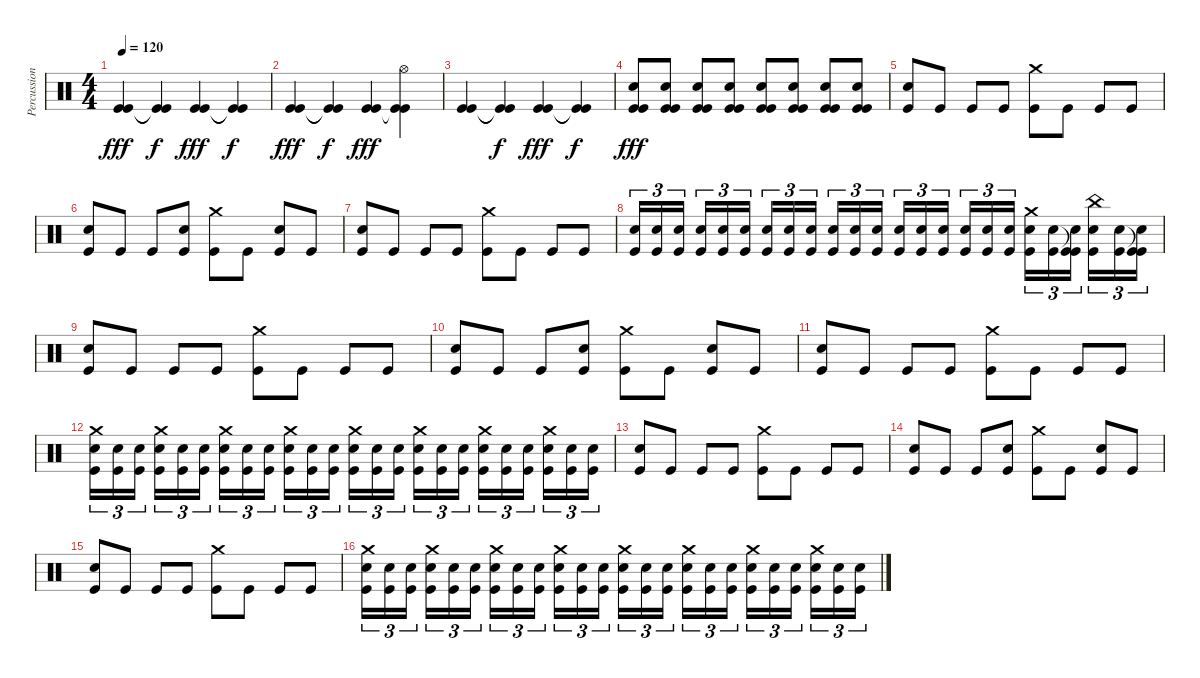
\track ("Percussions" "Percussion") {instrument percussion}
\staff {score}
\articulation defaults
\ts (4 4)
\tempo 120
\clef neutral
\ks c
("Kick (hit)" "Kick (hit)").4{dy fff} ("Kick (hit)"{t} "Kick (hit)"{t}).4{dy f} ("Kick (hit)" "Kick (hit)").4{dy fff} ("Kick (hit)"{t} "Kick (hit)"{t}).4{dy f} |
("Kick (hit)" "Kick (hit)").4{dy fff} ("Kick (hit)"{t} "Kick (hit)"{t}).4{dy f} ("Kick (hit)" "Kick (hit)").4{dy fff} ("Hi-Hat (open)" "Kick (hit)"{t} "Kick (hit)"{t}).4 |
("Kick (hit)" "Kick (hit)").4 ("Kick (hit)"{t} "Kick (hit)"{t}).4{dy f} ("Kick (hit)" "Kick (hit)").4{dy fff} ("Kick (hit)"{t} "Kick (hit)"{t}).4{dy f} |
("Snare (hit) 2" "Kick (hit)" "Kick (hit)").8{dy fff} ("Snare (hit) 2" "Kick (hit)" "Kick (hit)").8 ("Snare (hit) 2" "Kick (hit)" "Kick (hit)").8 ("Snare (hit) 2" "Kick (hit)" "Kick (hit)").8 ("Snare (hit) 2" "Kick (hit)" "Kick (hit)").8 ("Snare (hit) 2" "Kick (hit)" "Kick (hit)").8 ("Snare (hit) 2" "Kick (hit)" "Kick (hit)").8 ("Snare (hit) 2" "Kick (hit)" "Kick (hit)").8 |
("Snare (hit) 2" "Kick (hit)").8 "Kick (hit)".8 "Kick (hit)".8 "Kick (hit)".8 ("Crash medium (hit)" "Kick (hit)").8 "Kick (hit)".8 "Kick (hit)".8 "Kick (hit)".8 |
("Snare (hit) 2" "Kick (hit)").8 "Kick (hit)".8 "Kick (hit)".8 ("Snare (hit) 2" "Kick (hit)").8 ("Crash medium (hit)" "Kick (hit)").8 "Kick (hit)".8 ("Snare (hit) 2" "Kick (hit)").8 "Kick (hit)".8 |
("Snare (hit) 2" "Kick (hit)").8 "Kick (hit)".8 "Kick (hit)".8 "Kick (hit)".8 ("Crash medium (hit)" "Kick (hit)").8 "Kick (hit)".8 "Kick (hit)".8 "Kick (hit)".8 |
("Snare (hit) 2" "Kick (hit)").16{tu (3 2)} ("Snare (hit) 2" "Kick (hit)").16{tu (3 2)} ("Snare (hit) 2" "Kick (hit)").16{tu (3 2)} ("Snare (hit) 2" "Kick (hit)").16{tu (3 2)} ("Snare (hit) 2" "Kick (hit)").16{tu (3 2)} ("Snare (hit) 2" "Kick (hit)").16{tu (3 2)} ("Snare (hit) 2" "Kick (hit)").16{tu (3 2)} ("Snare (hit) 2" "Kick (hit)").16{tu (3 2)} ("Snare (hit) 2" "Kick (hit)").16{tu (3 2)} ("Snare (hit) 2" "Kick (hit)").16{tu (3 2)} ("Snare (hit) 2" "Kick (hit)").16{tu (3 2)} ("Snare (hit) 2" "Kick (hit)").16{tu (3 2)} ("Snare (hit) 2" "Kick (hit)").16{tu (3 2)} ("Snare (hit) 2" "Kick (hit)").16{tu (3 2)} ("Snare (hit) 2" "Kick (hit)").16{tu (3 2)} ("Snare (hit) 2" "Kick (hit)").16{tu (3 2)} ("Snare (hit) 2" "Kick (hit)").16{tu (3 2)} ("Snare (hit) 2" "Kick (hit)").16{tu (3 2)} ("Crash medium (hit)" "Snare (hit) 2" "Kick (hit)").16{tu (3 2)} ("Snare (hit) 2" "Kick (hit)").16{tu (3 2)} ("Kick (hit)"{t} "Snare (hit) 2" "Kick (hit)").16{tu (3 2)} ("China (hit)" "Snare (hit) 2" "Kick (hit)").16{tu (3 2)} ("Snare (hit) 2" "Kick (hit)").16{tu (3 2)} ("Kick (hit)"{t} "Snare (hit) 2" "Kick (hit)").16{tu (3 2)} |
("Snare (hit) 2" "Kick (hit)").8 "Kick (hit)".8 "Kick (hit)".8 "Kick (hit)".8 ("Crash medium (hit)" "Kick (hit)").8 "Kick (hit)".8 "Kick (hit)".8 "Kick (hit)".8 |
("Snare (hit) 2" "Kick (hit)").8 "Kick (hit)".8 "Kick (hit)".8 ("Snare (hit) 2" "Kick (hit)").8 ("Crash medium (hit)" "Kick (hit)").8 "Kick (hit)".8 ("Snare (hit) 2" "Kick (hit)").8 "Kick (hit)".8 |
("Snare (hit) 2" "Kick (hit)").8 "Kick (hit)".8 "Kick (hit)".8 "Kick (hit)".8 ("Crash medium (hit)" "Kick (hit)").8 "Kick (hit)".8 "Kick (hit)".8 "Kick (hit)".8 |
("Crash medium (hit)" "Snare (hit) 2" "Kick (hit)").16{tu (3 2)} ("Snare (hit) 2" "Kick (hit)").16{tu (3 2)} ("Snare (hit) 2" "Kick (hit)").16{tu (3 2)} ("Crash medium (hit)" "Snare (hit) 2" "Kick (hit)").16{tu (3 2)} ("Snare (hit) 2" "Kick (hit)").16{tu (3 2)} ("Snare (hit) 2" "Kick (hit)").16{tu (3 2)} ("Crash medium (hit)" "Snare (hit) 2" "Kick (hit)").16{tu (3 2)} ("Snare (hit) 2" "Kick (hit)").16{tu (3 2)} ("Snare (hit) 2" "Kick (hit)").16{tu (3 2)} ("Crash medium (hit)" "Snare (hit) 2" "Kick (hit)").16{tu (3 2)} ("Snare (hit) 2" "Kick (hit)").16{tu (3 2)} ("Snare (hit) 2" "Kick (hit)").16{tu (3 2)} ("Crash medium (hit)" "Snare (hit) 2" "Kick (hit)").16{tu (3 2)} ("Snare (hit) 2" "Kick (hit)").16{tu (3 2)} ("Snare (hit) 2" "Kick (hit)").16{tu (3 2)} ("Crash medium (hit)" "Snare (hit) 2" "Kick (hit)").16{tu (3 2)} ("Snare (hit) 2" "Kick (hit)").16{tu (3 2)} ("Snare (hit) 2" "Kick (hit)").16{tu (3 2)} ("Crash medium (hit)" "Snare (hit) 2" "Kick (hit)").16{tu (3 2)} ("Snare (hit) 2" "Kick (hit)").16{tu (3 2)} ("Snare (hit) 2" "Kick (hit)").16{tu (3 2)} ("Crash medium (hit)" "Snare (hit) 2" "Kick (hit)").16{tu (3 2)} ("Snare (hit) 2" "Kick (hit)").16{tu (3 2)} ("Snare (hit) 2" "Kick (hit)").16{tu (3 2)} |
("Snare (hit) 2" "Kick (hit)").8 "Kick (hit)".8 "Kick (hit)".8 "Kick (hit)".8 ("Crash medium (hit)" "Kick (hit)").8 "Kick (hit)".8 "Kick (hit)".8 "Kick (hit)".8 |
("Snare (hit) 2" "Kick (hit)").8 "Kick (hit)".8 "Kick (hit)".8 ("Snare (hit) 2" "Kick (hit)").8 ("Crash medium (hit)" "Kick (hit)").8 "Kick (hit)".8 ("Snare (hit) 2" "Kick (hit)").8 "Kick (hit)".8 |
("Snare (hit) 2" "Kick (hit)").8 "Kick (hit)".8 "Kick (hit)".8 "Kick (hit)".8 ("Crash medium (hit)" "Kick (hit)").8 "Kick (hit)".8 "Kick (hit)".8 "Kick (hit)".8 |
("Crash medium (hit)" "Snare (hit) 2" "Kick (hit)").16{tu (3 2)} ("Snare (hit) 2" "Kick (hit)").16{tu (3 2)} ("Snare (hit) 2" "Kick (hit)").16{tu (3 2)} ("Crash medium (hit)" "Snare (hit) 2" "Kick (hit)").16{tu (3 2)} ("Snare (hit) 2" "Kick (hit)").16{tu (3 2)} ("Snare (hit) 2" "Kick (hit)").16{tu (3 2)} ("Crash medium (hit)" "Snare (hit) 2" "Kick (hit)").16{tu (3 2)} ("Snare (hit) 2" "Kick (hit)").16{tu (3 2)} ("Snare (hit) 2" "Kick (hit)").16{tu (3 2)} ("Crash medium (hit)" "Snare (hit) 2" "Kick (hit)").16{tu (3 2)} ("Snare (hit) 2" "Kick (hit)").16{tu (3 2)} ("Snare (hit) 2" "Kick (hit)").16{tu (3 2)} ("Crash medium (hit)" "Snare (hit) 2" "Kick (hit)").16{tu (3 2)} ("Snare (hit) 2" "Kick (hit)").16{tu (3 2)} ("Snare (hit) 2" "Kick (hit)").16{tu (3 2)} ("Crash medium (hit)" "Snare (hit) 2" "Kick (hit)").16{tu (3 2)} ("Snare (hit) 2" "Kick (hit)").16{tu (3 2)} ("Snare (hit) 2" "Kick (hit)").16{tu (3 2)} ("Crash medium (hit)" "Snare (hit) 2" "Kick (hit)").16{tu (3 2)} ("Snare (hit) 2" "Kick (hit)").16{tu (3 2)} ("Snare (hit) 2" "Kick (hit)").16{tu (3 2)} ("Crash medium (hit)" "Snare (hit) 2" "Kick (hit)").16{tu (3 2)} ("Snare (hit) 2" "Kick (hit)").16{tu (3 2)} ("Snare (hit) 2" "Kick (hit)").16{tu (3 2)}
